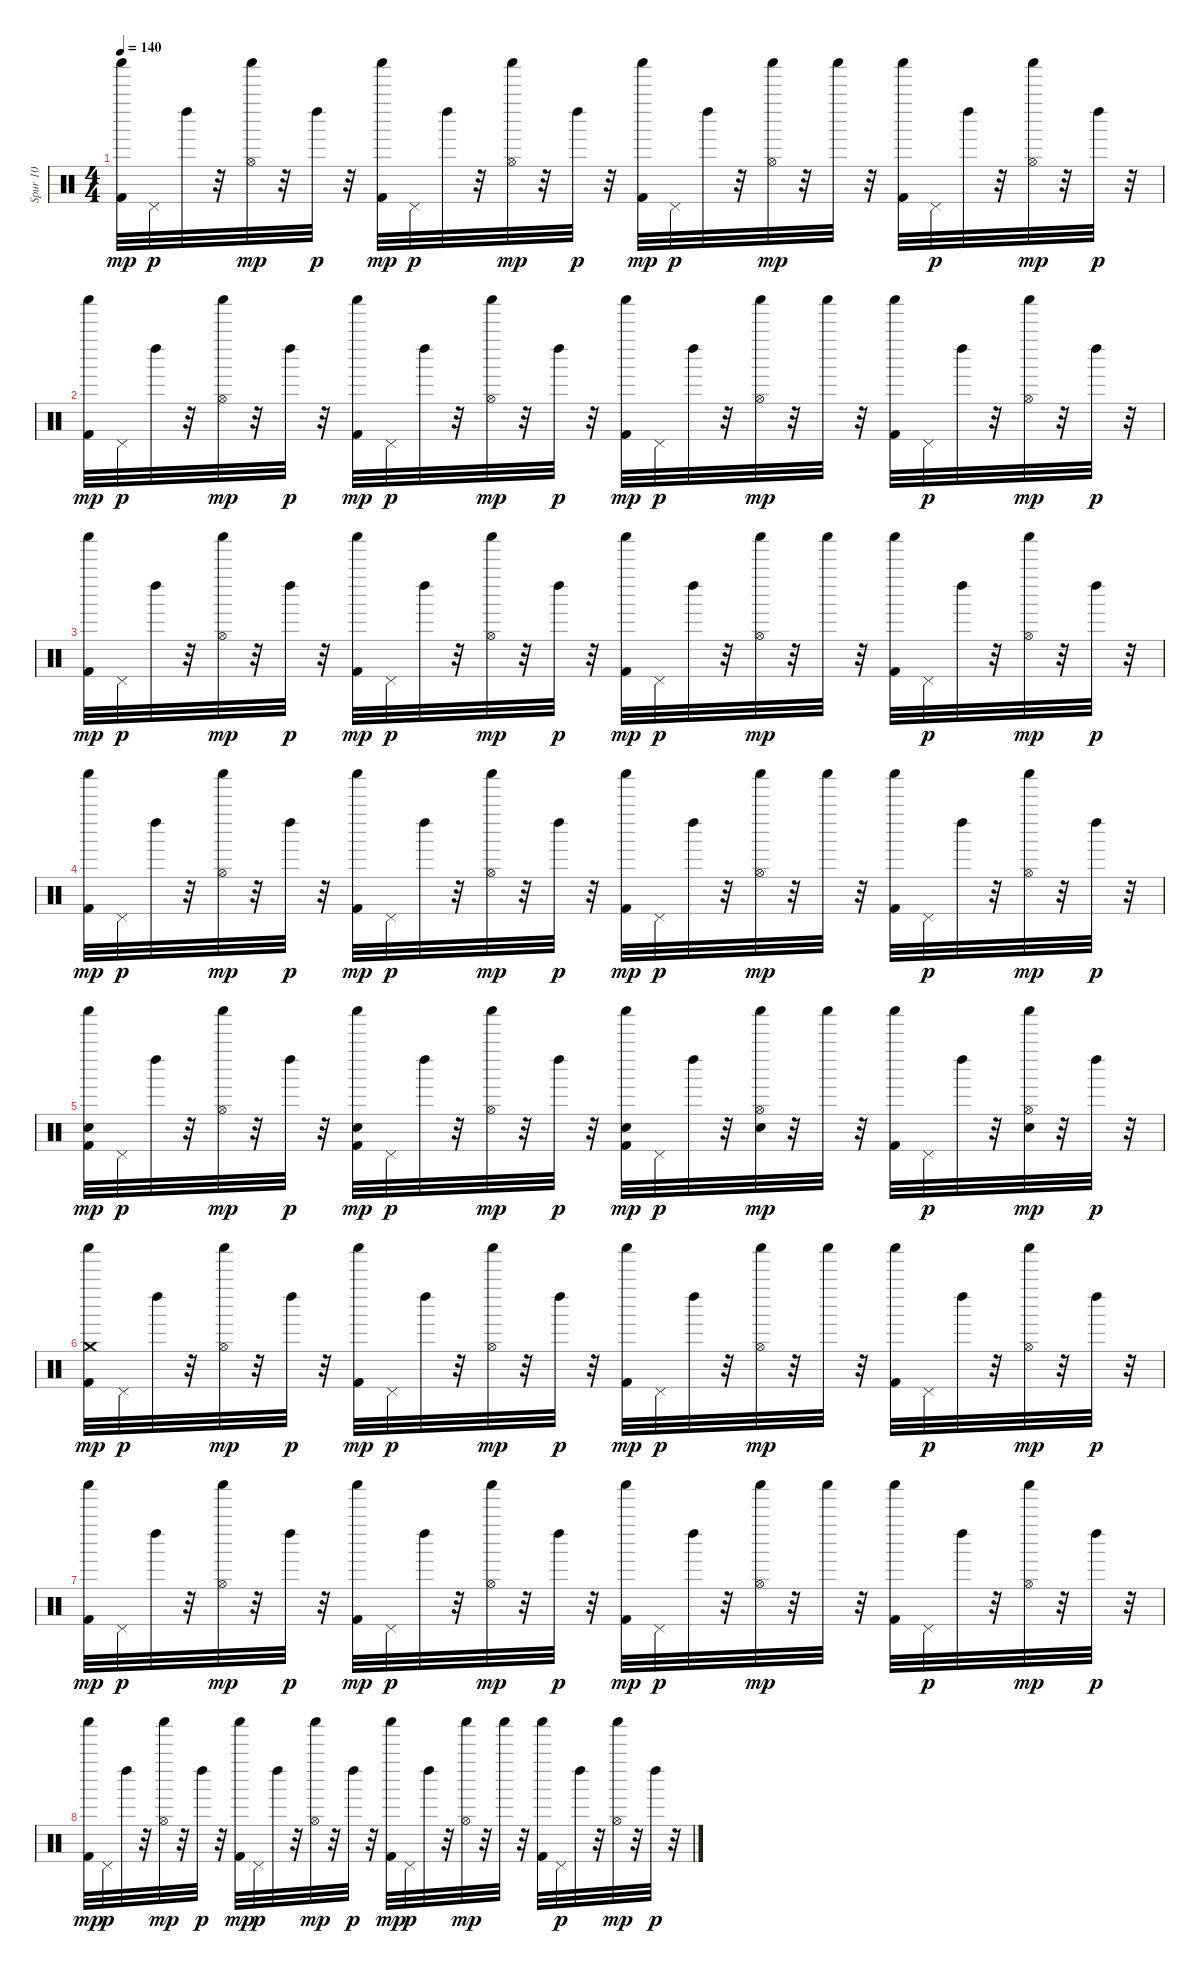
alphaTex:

\track ("Spur 10" "Spur 10") {instrument percussion}
\staff {score}
\articulation defaults
\ts (4 4)
\tempo 140
\clef neutral
\ks c
("Kick (hit) 2" "Shaker (hit)").32{dy mp} "Pedal Hi-Hat (hit)".32{dy p} "Left Maraca (hit)".32 r.32 ("Hi-Hat (open)" "Shaker (hit)").32{dy mp} r.32 "Left Maraca (hit)".32{dy p} r.32 ("Kick (hit) 2" "Shaker (hit)").32{dy mp} "Pedal Hi-Hat (hit)".32{dy p} "Left Maraca (hit)".32 r.32 ("Hi-Hat (open)" "Shaker (hit)").32{dy mp} r.32 "Left Maraca (hit)".32{dy p} r.32 ("Kick (hit) 2" "Shaker (hit)").32{dy mp} "Pedal Hi-Hat (hit)".32{dy p} "Left Maraca (hit)".32 r.32 ("Hi-Hat (open)" "Shaker (hit)").32{dy mp} r.32 "Shaker (hit)".32 r.32 ("Kick (hit) 2" "Shaker (hit)").32 "Pedal Hi-Hat (hit)".32{dy p} "Left Maraca (hit)".32 r.32 ("Hi-Hat (open)" "Shaker (hit)").32{dy mp} r.32 "Left Maraca (hit)".32{dy p} r.32 |
("Kick (hit) 2" "Shaker (hit)").32{dy mp} "Pedal Hi-Hat (hit)".32{dy p} "Left Maraca (hit)".32 r.32 ("Hi-Hat (open)" "Shaker (hit)").32{dy mp} r.32 "Left Maraca (hit)".32{dy p} r.32 ("Kick (hit) 2" "Shaker (hit)").32{dy mp} "Pedal Hi-Hat (hit)".32{dy p} "Left Maraca (hit)".32 r.32 ("Hi-Hat (open)" "Shaker (hit)").32{dy mp} r.32 "Left Maraca (hit)".32{dy p} r.32 ("Kick (hit) 2" "Shaker (hit)").32{dy mp} "Pedal Hi-Hat (hit)".32{dy p} "Left Maraca (hit)".32 r.32 ("Hi-Hat (open)" "Shaker (hit)").32{dy mp} r.32 "Shaker (hit)".32 r.32 ("Kick (hit) 2" "Shaker (hit)").32 "Pedal Hi-Hat (hit)".32{dy p} "Left Maraca (hit)".32 r.32 ("Hi-Hat (open)" "Shaker (hit)").32{dy mp} r.32 "Left Maraca (hit)".32{dy p} r.32 |
("Kick (hit) 2" "Shaker (hit)").32{dy mp} "Pedal Hi-Hat (hit)".32{dy p} "Left Maraca (hit)".32 r.32 ("Hi-Hat (open)" "Shaker (hit)").32{dy mp} r.32 "Left Maraca (hit)".32{dy p} r.32 ("Kick (hit) 2" "Shaker (hit)").32{dy mp} "Pedal Hi-Hat (hit)".32{dy p} "Left Maraca (hit)".32 r.32 ("Hi-Hat (open)" "Shaker (hit)").32{dy mp} r.32 "Left Maraca (hit)".32{dy p} r.32 ("Kick (hit) 2" "Shaker (hit)").32{dy mp} "Pedal Hi-Hat (hit)".32{dy p} "Left Maraca (hit)".32 r.32 ("Hi-Hat (open)" "Shaker (hit)").32{dy mp} r.32 "Shaker (hit)".32 r.32 ("Kick (hit) 2" "Shaker (hit)").32 "Pedal Hi-Hat (hit)".32{dy p} "Left Maraca (hit)".32 r.32 ("Hi-Hat (open)" "Shaker (hit)").32{dy mp} r.32 "Left Maraca (hit)".32{dy p} r.32 |
("Kick (hit) 2" "Shaker (hit)").32{dy mp} "Pedal Hi-Hat (hit)".32{dy p} "Left Maraca (hit)".32 r.32 ("Hi-Hat (open)" "Shaker (hit)").32{dy mp} r.32 "Left Maraca (hit)".32{dy p} r.32 ("Kick (hit) 2" "Shaker (hit)").32{dy mp} "Pedal Hi-Hat (hit)".32{dy p} "Left Maraca (hit)".32 r.32 ("Hi-Hat (open)" "Shaker (hit)").32{dy mp} r.32 "Left Maraca (hit)".32{dy p} r.32 ("Kick (hit) 2" "Shaker (hit)").32{dy mp} "Pedal Hi-Hat (hit)".32{dy p} "Left Maraca (hit)".32 r.32 ("Hi-Hat (open)" "Shaker (hit)").32{dy mp} r.32 "Shaker (hit)".32 r.32 ("Kick (hit) 2" "Shaker (hit)").32 "Pedal Hi-Hat (hit)".32{dy p} "Left Maraca (hit)".32 r.32 ("Hi-Hat (open)" "Shaker (hit)").32{dy mp} r.32 "Left Maraca (hit)".32{dy p} r.32 |
("Kick (hit) 2" "Electric Snare (hit)" "Shaker (hit)").32{dy mp} "Pedal Hi-Hat (hit)".32{dy p} "Left Maraca (hit)".32 r.32 ("Hi-Hat (open)" "Shaker (hit)").32{dy mp} r.32 "Left Maraca (hit)".32{dy p} r.32 ("Kick (hit) 2" "Electric Snare (hit)" "Shaker (hit)").32{dy mp} "Pedal Hi-Hat (hit)".32{dy p} "Left Maraca (hit)".32 r.32 ("Hi-Hat (open)" "Shaker (hit)").32{dy mp} r.32 "Left Maraca (hit)".32{dy p} r.32 ("Kick (hit) 2" "Electric Snare (hit)" "Shaker (hit)").32{dy mp} "Pedal Hi-Hat (hit)".32{dy p} "Left Maraca (hit)".32 r.32 ("Electric Snare (hit)" "Hi-Hat (open)" "Shaker (hit)").32{dy mp} r.32 "Shaker (hit)".32 r.32 ("Kick (hit) 2" "Shaker (hit)").32 "Pedal Hi-Hat (hit)".32{dy p} "Left Maraca (hit)".32 r.32 ("Electric Snare (hit)" "Hi-Hat (open)" "Shaker (hit)").32{dy mp} r.32 "Left Maraca (hit)".32{dy p} r.32 |
("Kick (hit) 2" "Shaker (hit)" "Crash medium (hit)").32{dy mp} "Pedal Hi-Hat (hit)".32{dy p} "Left Maraca (hit)".32 r.32 ("Hi-Hat (open)" "Shaker (hit)").32{dy mp} r.32 "Left Maraca (hit)".32{dy p} r.32 ("Kick (hit) 2" "Shaker (hit)").32{dy mp} "Pedal Hi-Hat (hit)".32{dy p} "Left Maraca (hit)".32 r.32 ("Hi-Hat (open)" "Shaker (hit)").32{dy mp} r.32 "Left Maraca (hit)".32{dy p} r.32 ("Kick (hit) 2" "Shaker (hit)").32{dy mp} "Pedal Hi-Hat (hit)".32{dy p} "Left Maraca (hit)".32 r.32 ("Hi-Hat (open)" "Shaker (hit)").32{dy mp} r.32 "Shaker (hit)".32 r.32 ("Kick (hit) 2" "Shaker (hit)").32 "Pedal Hi-Hat (hit)".32{dy p} "Left Maraca (hit)".32 r.32 ("Hi-Hat (open)" "Shaker (hit)").32{dy mp} r.32 "Left Maraca (hit)".32{dy p} r.32 |
("Kick (hit) 2" "Shaker (hit)").32{dy mp} "Pedal Hi-Hat (hit)".32{dy p} "Left Maraca (hit)".32 r.32 ("Hi-Hat (open)" "Shaker (hit)").32{dy mp} r.32 "Left Maraca (hit)".32{dy p} r.32 ("Kick (hit) 2" "Shaker (hit)").32{dy mp} "Pedal Hi-Hat (hit)".32{dy p} "Left Maraca (hit)".32 r.32 ("Hi-Hat (open)" "Shaker (hit)").32{dy mp} r.32 "Left Maraca (hit)".32{dy p} r.32 ("Kick (hit) 2" "Shaker (hit)").32{dy mp} "Pedal Hi-Hat (hit)".32{dy p} "Left Maraca (hit)".32 r.32 ("Hi-Hat (open)" "Shaker (hit)").32{dy mp} r.32 "Shaker (hit)".32 r.32 ("Kick (hit) 2" "Shaker (hit)").32 "Pedal Hi-Hat (hit)".32{dy p} "Left Maraca (hit)".32 r.32 ("Hi-Hat (open)" "Shaker (hit)").32{dy mp} r.32 "Left Maraca (hit)".32{dy p} r.32 |
("Kick (hit) 2" "Shaker (hit)").32{dy mp} "Pedal Hi-Hat (hit)".32{dy p} "Left Maraca (hit)".32 r.32 ("Hi-Hat (open)" "Shaker (hit)").32{dy mp} r.32 "Left Maraca (hit)".32{dy p} r.32 ("Kick (hit) 2" "Shaker (hit)").32{dy mp} "Pedal Hi-Hat (hit)".32{dy p} "Left Maraca (hit)".32 r.32 ("Hi-Hat (open)" "Shaker (hit)").32{dy mp} r.32 "Left Maraca (hit)".32{dy p} r.32 ("Kick (hit) 2" "Shaker (hit)").32{dy mp} "Pedal Hi-Hat (hit)".32{dy p} "Left Maraca (hit)".32 r.32 ("Hi-Hat (open)" "Shaker (hit)").32{dy mp} r.32 "Shaker (hit)".32 r.32 ("Kick (hit) 2" "Shaker (hit)").32 "Pedal Hi-Hat (hit)".32{dy p} "Left Maraca (hit)".32 r.32 ("Hi-Hat (open)" "Shaker (hit)").32{dy mp} r.32 "Left Maraca (hit)".32{dy p} r.32
